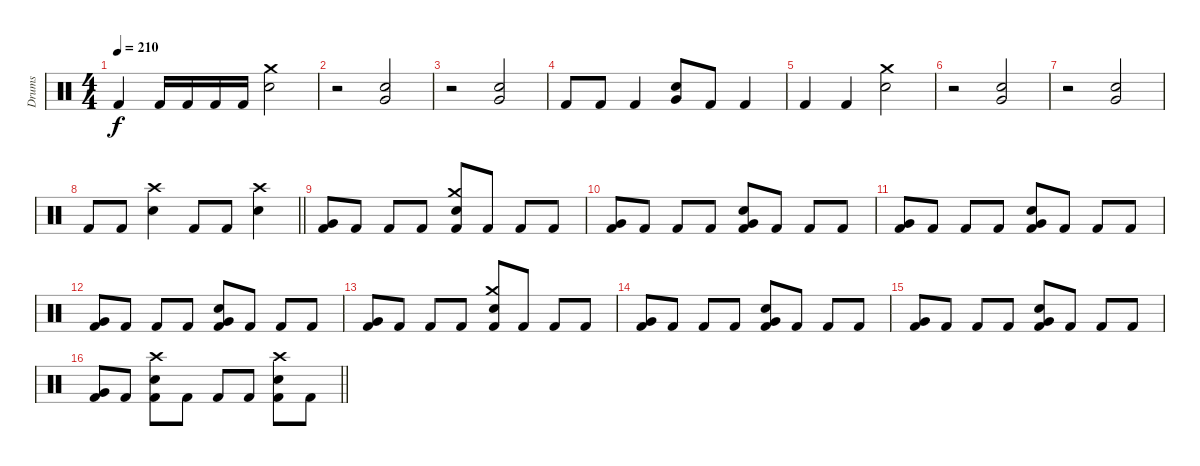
\track ("Drums" "Drums") {instrument percussion}
\staff {score}
\articulation defaults
\ts (4 4)
\tempo 210
\clef neutral
\ks c "Kick (hit) 2".4{dy f} "Kick (hit) 2".16 "Kick (hit) 2".16 "Kick (hit) 2".16 "Kick (hit) 2".16
("Crash medium (hit)" "Snare (hit) 2").2 |
r.2 ("Very Low Tom (hit)" "Snare (hit) 2").2 |
r.2 ("Very Low Tom (hit)" "Snare (hit) 2").2 |
"Kick (hit) 2".8 "Kick (hit) 2".8 "Kick (hit) 2".4 ("Very Low Tom (hit)" "Snare (hit) 2").8 "Kick (hit) 2".8 "Kick (hit) 2".4 |
"Kick (hit) 2".4 "Kick (hit) 2".4 ("Crash medium (hit)" "Snare (hit) 2").2 |
r.2 ("Very Low Tom (hit)" "Snare (hit) 2").2 |
r.2 ("Very Low Tom (hit)" "Snare (hit) 2").2 |
\barLineRight lightlight "Kick (hit) 2".8 "Kick (hit) 2".8
("Crash high (hit)" "Snare (hit) 2").4 "Kick (hit) 2".8 "Kick (hit) 2".8 ("Crash high (hit)" "Snare (hit) 2").4 |
\section ("" "")
("Very Low Tom (hit)" "Kick (hit) 2").8 "Kick (hit) 2".8 "Kick (hit) 2".8 "Kick (hit) 2".8 ("Crash medium (hit)" "Snare (hit) 2" "Kick (hit) 2").8 "Kick (hit) 2".8 "Kick (hit) 2".8 "Kick (hit) 2".8 |
("Very Low Tom (hit)" "Kick (hit) 2").8 "Kick (hit) 2".8 "Kick (hit) 2".8 "Kick (hit) 2".8 ("Very Low Tom (hit)" "Snare (hit) 2" "Kick (hit) 2").8 "Kick (hit) 2".8 "Kick (hit) 2".8 "Kick (hit) 2".8 |
("Very Low Tom (hit)" "Kick (hit) 2").8 "Kick (hit) 2".8 "Kick (hit) 2".8 "Kick (hit) 2".8 ("Very Low Tom (hit)" "Snare (hit) 2" "Kick (hit) 2").8 "Kick (hit) 2".8 "Kick (hit) 2".8 "Kick (hit) 2".8 |
("Very Low Tom (hit)" "Kick (hit) 2").8 "Kick (hit) 2".8 "Kick (hit) 2".8 "Kick (hit) 2".8 ("Very Low Tom (hit)" "Snare (hit) 2" "Kick (hit) 2").8 "Kick (hit) 2".8 "Kick (hit) 2".8 "Kick (hit) 2".8 |
("Very Low Tom (hit)" "Kick (hit) 2").8 "Kick (hit) 2".8 "Kick (hit) 2".8 "Kick (hit) 2".8 ("Crash medium (hit)" "Snare (hit) 2" "Kick (hit) 2").8 "Kick (hit) 2".8 "Kick (hit) 2".8 "Kick (hit) 2".8 |
("Very Low Tom (hit)" "Kick (hit) 2").8 "Kick (hit) 2".8 "Kick (hit) 2".8 "Kick (hit) 2".8 ("Very Low Tom (hit)" "Snare (hit) 2" "Kick (hit) 2").8 "Kick (hit) 2".8 "Kick (hit) 2".8 "Kick (hit) 2".8 |
("Very Low Tom (hit)" "Kick (hit) 2").8 "Kick (hit) 2".8 "Kick (hit) 2".8 "Kick (hit) 2".8 ("Very Low Tom (hit)" "Snare (hit) 2" "Kick (hit) 2").8 "Kick (hit) 2".8 "Kick (hit) 2".8 "Kick (hit) 2".8 |
\barLineRight lightlight
("Very Low Tom (hit)" "Kick (hit) 2").8 "Kick (hit) 2".8 ("Crash high (hit)" "Snare (hit) 2" "Kick (hit) 2").8 "Kick (hit) 2".8 "Kick (hit) 2".8 "Kick (hit) 2".8 ("Crash high (hit)" "Snare (hit) 2" "Kick (hit) 2").8 "Kick (hit) 2".8
